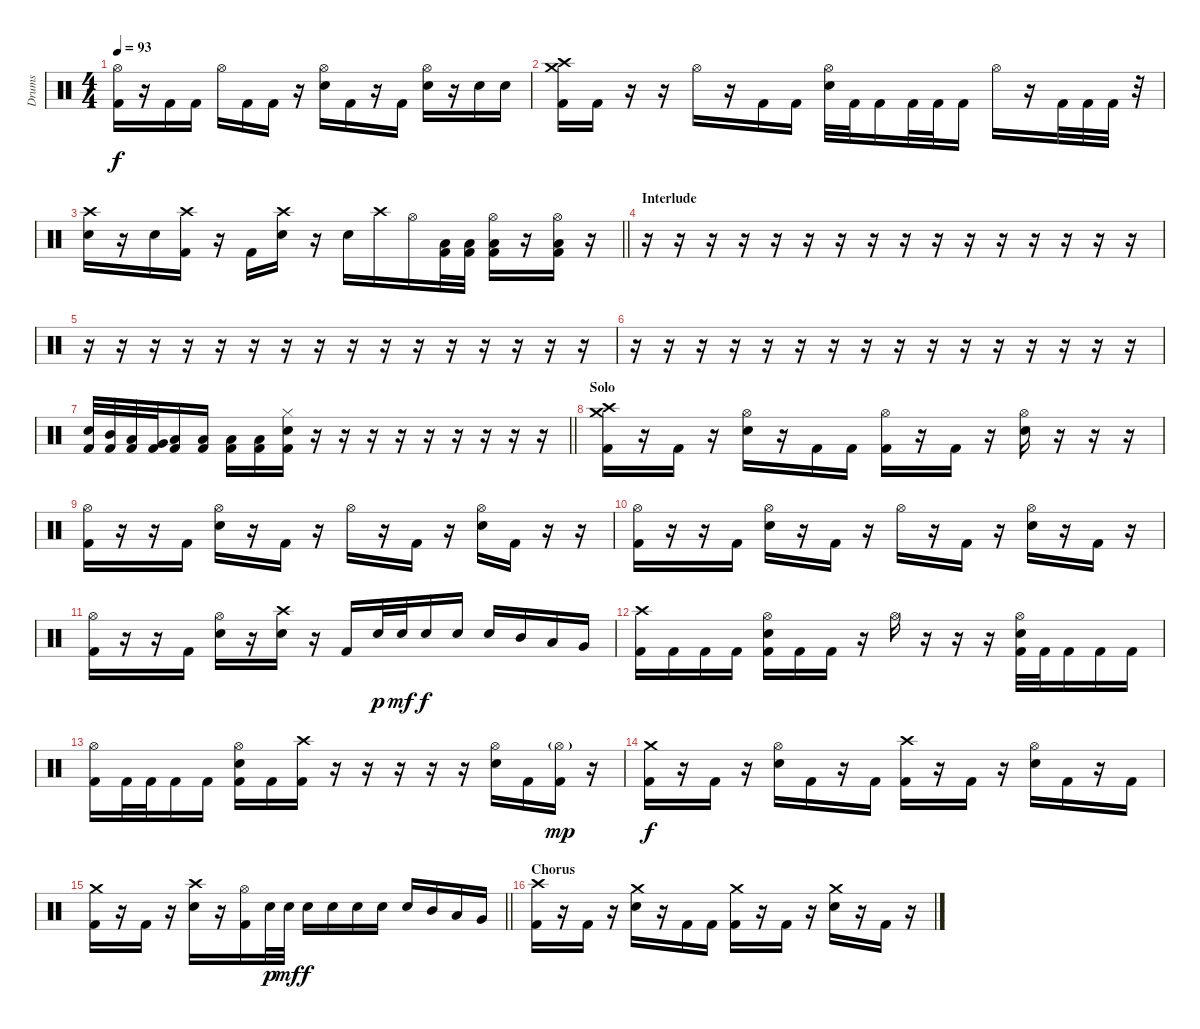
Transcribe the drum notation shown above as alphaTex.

\track ("Drums" "Drums") {instrument percussion}
\staff {score}
\articulation defaults
\ts (4 4)
\tempo 93
\clef neutral
\ks c
("Hi-Hat (open)" "Kick (hit) 2").16{dy f} r.16 "Kick (hit) 2".16 "Kick (hit) 2".16 "Hi-Hat (open)".16 "Kick (hit) 2".16 "Kick (hit) 2".16 r.16 ("Hi-Hat (open)" "Snare (hit) 2").16 "Kick (hit) 2".16 r.16 "Kick (hit) 2".16 ("Hi-Hat (open)" "Snare (hit) 2").16 r.16 "Snare (hit) 2".16 "Snare (hit) 2".16 |
("Kick (hit) 2" "Crash medium (hit)" "Crash high (hit)").16 "Kick (hit) 2".16 r.16 r.16 "Hi-Hat (open)".16 r.16 "Kick (hit) 2".16 "Kick (hit) 2".16 ("Hi-Hat (open)" "Snare (hit) 2").32 "Kick (hit) 2".32 "Kick (hit) 2".16 "Kick (hit) 2".32 "Kick (hit) 2".32 "Kick (hit) 2".16 "Hi-Hat (open)".16 r.16 "Kick (hit) 2".32 "Kick (hit) 2".32 "Kick (hit) 2".32 r.32 |
\barLineRight lightlight
("Crash high (hit)" "Snare (hit) 2").16 r.16 "Snare (hit) 2".16 ("Crash high (hit)" "Kick (hit) 2").16 r.16 "Kick (hit) 2".16 ("Crash high (hit)" "Snare (hit) 2").16 r.16 "Snare (hit) 2".16 "Crash high (hit)".16 "Hi-Hat (open)".16 ("Low Floor Tom (hit)" "Kick (hit) 2").32 ("Low Floor Tom (hit)" "Kick (hit) 2").32 ("Hi-Hat (open)" "Low Floor Tom (hit)" "Kick (hit) 2").16 r.16 ("Hi-Hat (open)" "Low Floor Tom (hit)" "Kick (hit) 2").16 r.16 |
\section ("" "Interlude")
r.16 r.16 r.16 r.16 r.16 r.16 r.16 r.16 r.16 r.16 r.16 r.16 r.16 r.16 r.16 r.16 |
r.16 r.16 r.16 r.16 r.16 r.16 r.16 r.16 r.16 r.16 r.16 r.16 r.16 r.16 r.16 r.16 |
r.16 r.16 r.16 r.16 r.16 r.16 r.16 r.16 r.16 r.16 r.16 r.16 r.16 r.16 r.16 r.16 |
\barLineRight lightlight
("Snare (hit) 2" "Kick (hit) 2").32 ("Mid Tom (hit)" "Kick (hit) 2").32 ("Low Tom (hit)" "Kick (hit) 2").32 ("Very Low Tom (hit)" "Kick (hit) 2").32 ("Low Tom (hit)" "Kick (hit) 2").16 ("Low Tom (hit)" "Kick (hit) 2").16 ("Low Tom (hit)" "Kick (hit) 2").16 ("Low Tom (hit)" "Kick (hit) 2").16 ("Hi-Hat (closed)" "Snare (hit) 2" "Kick (hit) 2").16 r.16 r.16 r.16 r.16 r.16 r.16 r.16 r.16 r.16 |
\section ("" "Solo")
("Crash high (hit)" "Crash medium (hit)" "Kick (hit) 2").16 r.16 "Kick (hit) 2".16 r.16 ("Hi-Hat (open)" "Snare (hit) 2").16 r.16 "Kick (hit) 2".16 "Kick (hit) 2".16 ("Hi-Hat (open)" "Kick (hit) 2").16 r.16 "Kick (hit) 2".16 r.16 ("Hi-Hat (open)" "Snare (hit) 2").16 r.16 r.16 r.16 |
("Hi-Hat (open)" "Kick (hit) 2").16 r.16 r.16 "Kick (hit) 2".16 ("Hi-Hat (open)" "Snare (hit) 2").16 r.16 "Kick (hit) 2".16 r.16 "Hi-Hat (open)".16 r.16 "Kick (hit) 2".16 r.16 ("Hi-Hat (open)" "Snare (hit) 2").16 "Kick (hit) 2".16 r.16 r.16 |
("Hi-Hat (open)" "Kick (hit) 2").16 r.16 r.16 "Kick (hit) 2".16 ("Hi-Hat (open)" "Snare (hit) 2").16 r.16 "Kick (hit) 2".16 r.16 "Hi-Hat (open)".16 r.16 "Kick (hit) 2".16 r.16 ("Hi-Hat (open)" "Snare (hit) 2").16 r.16 "Kick (hit) 2".16 r.16 |
("Hi-Hat (open)" "Kick (hit) 2").16 r.16 r.16 "Kick (hit) 2".16 ("Hi-Hat (open)" "Snare (hit) 2").16 r.16 ("Crash high (hit)" "Snare (hit) 2").16 r.16 "Kick (hit) 2".16 "Snare (hit) 2".32{dy p} "Snare (hit) 2".32{dy mf} "Snare (hit) 2".16{dy f} "Snare (hit) 2".16 "Snare (hit) 2".16 "Mid Tom (hit)".16 "Low Tom (hit)".16 "Very Low Tom (hit)".16 |
("Crash high (hit)" "Kick (hit) 2").16 "Kick (hit) 2".16 "Kick (hit) 2".16 "Kick (hit) 2".16 ("Hi-Hat (open)" "Snare (hit) 2" "Kick (hit) 2").16 "Kick (hit) 2".16 "Kick (hit) 2".16 r.16 "Hi-Hat (open)".16 r.16 r.16 r.16 ("Hi-Hat (open)" "Snare (hit) 2" "Kick (hit) 2").32 "Kick (hit) 2".32 "Kick (hit) 2".16 "Kick (hit) 2".16 "Kick (hit) 2".16 |
("Hi-Hat (open)" "Kick (hit) 2").16 "Kick (hit) 2".32 "Kick (hit) 2".32 "Kick (hit) 2".16 "Kick (hit) 2".16 ("Hi-Hat (open)" "Snare (hit) 2" "Kick (hit) 2").16 "Kick (hit) 2".16 ("Crash high (hit)" "Kick (hit) 2").16 r.16 r.16 r.16 r.16 r.16 ("Hi-Hat (open)" "Snare (hit) 2").16 "Kick (hit) 2".16 ("Hi-Hat (open)"{g} "Kick (hit) 2").16{dy mp} r.16 |
("Crash medium (hit)" "Kick (hit) 2").16{dy f} r.16 "Kick (hit) 2".16 r.16 ("Hi-Hat (open)" "Snare (hit) 2").16 "Kick (hit) 2".16 r.16 "Kick (hit) 2".16 ("Crash high (hit)" "Kick (hit) 2").16 r.16 "Kick (hit) 2".16 r.16 ("Hi-Hat (open)" "Snare (hit) 2").16 "Kick (hit) 2".16 r.16 "Kick (hit) 2".16 |
\barLineRight lightlight
("Crash medium (hit)" "Kick (hit) 2").16 r.16 "Kick (hit) 2".16 r.16 ("Crash high (hit)" "Snare (hit) 2").16 r.16 ("Hi-Hat (open)" "Kick (hit) 2").16 "Snare (hit) 2".32{dy p} "Snare (hit) 2".32{dy mf} "Snare (hit) 2".16{dy f} "Snare (hit) 2".16 "Snare (hit) 2".16 "Snare (hit) 2".16 "Snare (hit) 2".16 "Mid Tom (hit)".16 "Low Tom (hit)".16 "Very Low Tom (hit)".16 |
\section ("" "Chorus")
("Kick (hit) 2" "Crash high (hit)").16 r.16 "Kick (hit) 2".16 r.16 ("Snare (hit) 2" "Crash medium (hit)").16 r.16 "Kick (hit) 2".16 "Kick (hit) 2".16 ("Kick (hit) 2" "Crash medium (hit)").16 r.16 "Kick (hit) 2".16 r.16 ("Snare (hit) 2" "Crash medium (hit)").16 r.16 "Kick (hit) 2".16 r.16
